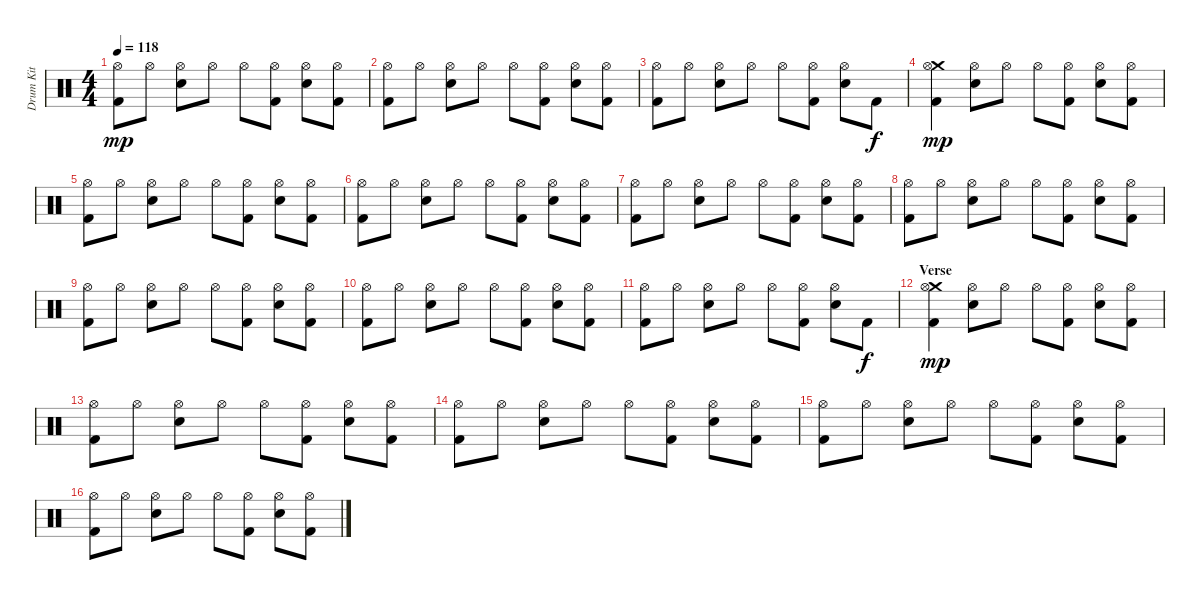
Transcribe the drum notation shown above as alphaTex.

\track ("Drum Kit" "Drum Kit") {instrument percussion}
\staff {score}
\articulation defaults
\ts (4 4)
\tempo 118
\clef neutral
\ks c
("Hi-Hat (open)" "Kick (hit) 2").8{dy mp} "Hi-Hat (open)".8 ("Hi-Hat (open)" "Electric Snare (hit)").8 "Hi-Hat (open)".8 "Hi-Hat (open)".8 ("Hi-Hat (open)" "Kick (hit) 2").8 ("Hi-Hat (open)" "Electric Snare (hit)").8 ("Hi-Hat (open)" "Kick (hit) 2").8 |
("Hi-Hat (open)" "Kick (hit) 2").8 "Hi-Hat (open)".8 ("Hi-Hat (open)" "Electric Snare (hit)").8 "Hi-Hat (open)".8 "Hi-Hat (open)".8 ("Hi-Hat (open)" "Kick (hit) 2").8 ("Hi-Hat (open)" "Electric Snare (hit)").8 ("Hi-Hat (open)" "Kick (hit) 2").8 |
("Hi-Hat (open)" "Kick (hit) 2").8 "Hi-Hat (open)".8 ("Hi-Hat (open)" "Electric Snare (hit)").8 "Hi-Hat (open)".8 "Hi-Hat (open)".8 ("Hi-Hat (open)" "Kick (hit) 2").8 ("Hi-Hat (open)" "Electric Snare (hit)").8 "Kick (hit) 2".8{dy f} |
("Crash medium (hit)" "Hi-Hat (open)" "Kick (hit) 2").4{dy mp} ("Hi-Hat (open)" "Electric Snare (hit)").8 "Hi-Hat (open)".8 "Hi-Hat (open)".8 ("Hi-Hat (open)" "Kick (hit) 2").8 ("Hi-Hat (open)" "Electric Snare (hit)").8 ("Hi-Hat (open)" "Kick (hit) 2").8 |
("Hi-Hat (open)" "Kick (hit) 2").8 "Hi-Hat (open)".8 ("Hi-Hat (open)" "Electric Snare (hit)").8 "Hi-Hat (open)".8 "Hi-Hat (open)".8 ("Hi-Hat (open)" "Kick (hit) 2").8 ("Hi-Hat (open)" "Electric Snare (hit)").8 ("Hi-Hat (open)" "Kick (hit) 2").8 |
("Hi-Hat (open)" "Kick (hit) 2").8 "Hi-Hat (open)".8 ("Hi-Hat (open)" "Electric Snare (hit)").8 "Hi-Hat (open)".8 "Hi-Hat (open)".8 ("Hi-Hat (open)" "Kick (hit) 2").8 ("Hi-Hat (open)" "Electric Snare (hit)").8 ("Hi-Hat (open)" "Kick (hit) 2").8 |
("Hi-Hat (open)" "Kick (hit) 2").8 "Hi-Hat (open)".8 ("Hi-Hat (open)" "Electric Snare (hit)").8 "Hi-Hat (open)".8 "Hi-Hat (open)".8 ("Hi-Hat (open)" "Kick (hit) 2").8 ("Hi-Hat (open)" "Electric Snare (hit)").8 ("Hi-Hat (open)" "Kick (hit) 2").8 |
("Hi-Hat (open)" "Kick (hit) 2").8 "Hi-Hat (open)".8 ("Hi-Hat (open)" "Electric Snare (hit)").8 "Hi-Hat (open)".8 "Hi-Hat (open)".8 ("Hi-Hat (open)" "Kick (hit) 2").8 ("Hi-Hat (open)" "Electric Snare (hit)").8 ("Hi-Hat (open)" "Kick (hit) 2").8 |
("Hi-Hat (open)" "Kick (hit) 2").8 "Hi-Hat (open)".8 ("Hi-Hat (open)" "Electric Snare (hit)").8 "Hi-Hat (open)".8 "Hi-Hat (open)".8 ("Hi-Hat (open)" "Kick (hit) 2").8 ("Hi-Hat (open)" "Electric Snare (hit)").8 ("Hi-Hat (open)" "Kick (hit) 2").8 |
("Hi-Hat (open)" "Kick (hit) 2").8 "Hi-Hat (open)".8 ("Hi-Hat (open)" "Electric Snare (hit)").8 "Hi-Hat (open)".8 "Hi-Hat (open)".8 ("Hi-Hat (open)" "Kick (hit) 2").8 ("Hi-Hat (open)" "Electric Snare (hit)").8 ("Hi-Hat (open)" "Kick (hit) 2").8 |
("Hi-Hat (open)" "Kick (hit) 2").8 "Hi-Hat (open)".8 ("Hi-Hat (open)" "Electric Snare (hit)").8 "Hi-Hat (open)".8 "Hi-Hat (open)".8 ("Hi-Hat (open)" "Kick (hit) 2").8 ("Hi-Hat (open)" "Electric Snare (hit)").8 "Kick (hit) 2".8{dy f} |
\section ("" "Verse")
("Crash medium (hit)" "Hi-Hat (open)" "Kick (hit) 2").4{dy mp} ("Hi-Hat (open)" "Electric Snare (hit)").8 "Hi-Hat (open)".8 "Hi-Hat (open)".8 ("Hi-Hat (open)" "Kick (hit) 2").8 ("Hi-Hat (open)" "Electric Snare (hit)").8 ("Hi-Hat (open)" "Kick (hit) 2").8 |
("Hi-Hat (open)" "Kick (hit) 2").8 "Hi-Hat (open)".8 ("Hi-Hat (open)" "Electric Snare (hit)").8 "Hi-Hat (open)".8 "Hi-Hat (open)".8 ("Hi-Hat (open)" "Kick (hit) 2").8 ("Hi-Hat (open)" "Electric Snare (hit)").8 ("Hi-Hat (open)" "Kick (hit) 2").8 |
("Hi-Hat (open)" "Kick (hit) 2").8 "Hi-Hat (open)".8 ("Hi-Hat (open)" "Electric Snare (hit)").8 "Hi-Hat (open)".8 "Hi-Hat (open)".8 ("Hi-Hat (open)" "Kick (hit) 2").8 ("Hi-Hat (open)" "Electric Snare (hit)").8 ("Hi-Hat (open)" "Kick (hit) 2").8 |
("Hi-Hat (open)" "Kick (hit) 2").8 "Hi-Hat (open)".8 ("Hi-Hat (open)" "Electric Snare (hit)").8 "Hi-Hat (open)".8 "Hi-Hat (open)".8 ("Hi-Hat (open)" "Kick (hit) 2").8 ("Hi-Hat (open)" "Electric Snare (hit)").8 ("Hi-Hat (open)" "Kick (hit) 2").8 |
("Hi-Hat (open)" "Kick (hit) 2").8 "Hi-Hat (open)".8 ("Hi-Hat (open)" "Electric Snare (hit)").8 "Hi-Hat (open)".8 "Hi-Hat (open)".8 ("Hi-Hat (open)" "Kick (hit) 2").8 ("Hi-Hat (open)" "Electric Snare (hit)").8 ("Hi-Hat (open)" "Kick (hit) 2").8
